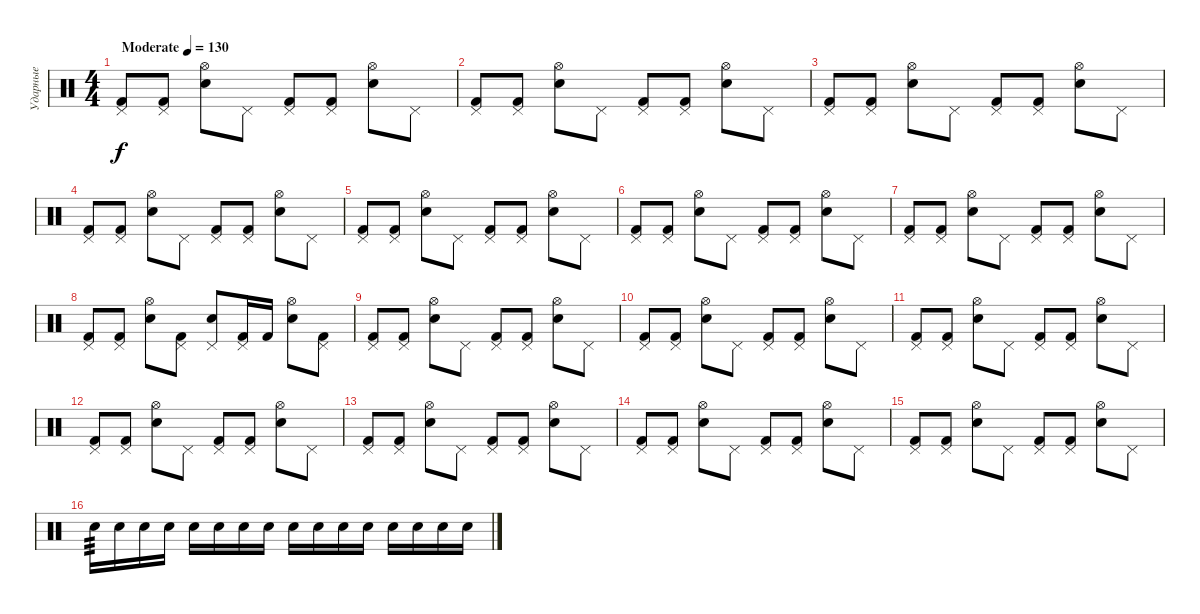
\track ("Ударные" "Ударные") {instrument percussion}
\staff {score}
\articulation defaults
\ts (4 4)
\tempo (130 "Moderate")
\clef neutral
\ks c
("Pedal Hi-Hat (hit)" "Kick (hit) 2").8{dy f} ("Pedal Hi-Hat (hit)" "Kick (hit) 2").8 ("Hi-Hat (open)" "Electric Snare (hit)").8 "Pedal Hi-Hat (hit)".8 ("Pedal Hi-Hat (hit)" "Kick (hit) 2").8 ("Pedal Hi-Hat (hit)" "Kick (hit) 2").8 ("Hi-Hat (open)" "Electric Snare (hit)").8 "Pedal Hi-Hat (hit)".8 |
("Pedal Hi-Hat (hit)" "Kick (hit) 2").8 ("Pedal Hi-Hat (hit)" "Kick (hit) 2").8 ("Hi-Hat (open)" "Electric Snare (hit)").8 "Pedal Hi-Hat (hit)".8 ("Pedal Hi-Hat (hit)" "Kick (hit) 2").8 ("Pedal Hi-Hat (hit)" "Kick (hit) 2").8 ("Hi-Hat (open)" "Electric Snare (hit)").8 "Pedal Hi-Hat (hit)".8 |
("Pedal Hi-Hat (hit)" "Kick (hit) 2").8 ("Pedal Hi-Hat (hit)" "Kick (hit) 2").8 ("Hi-Hat (open)" "Electric Snare (hit)").8 "Pedal Hi-Hat (hit)".8 ("Pedal Hi-Hat (hit)" "Kick (hit) 2").8 ("Pedal Hi-Hat (hit)" "Kick (hit) 2").8 ("Hi-Hat (open)" "Electric Snare (hit)").8 "Pedal Hi-Hat (hit)".8 |
("Pedal Hi-Hat (hit)" "Kick (hit) 2").8 ("Pedal Hi-Hat (hit)" "Kick (hit) 2").8 ("Hi-Hat (open)" "Electric Snare (hit)").8 "Pedal Hi-Hat (hit)".8 ("Pedal Hi-Hat (hit)" "Kick (hit) 2").8 ("Pedal Hi-Hat (hit)" "Kick (hit) 2").8 ("Hi-Hat (open)" "Electric Snare (hit)").8 "Pedal Hi-Hat (hit)".8 |
("Pedal Hi-Hat (hit)" "Kick (hit) 2").8 ("Pedal Hi-Hat (hit)" "Kick (hit) 2").8 ("Hi-Hat (open)" "Electric Snare (hit)").8 "Pedal Hi-Hat (hit)".8 ("Pedal Hi-Hat (hit)" "Kick (hit) 2").8 ("Pedal Hi-Hat (hit)" "Kick (hit) 2").8 ("Hi-Hat (open)" "Electric Snare (hit)").8 "Pedal Hi-Hat (hit)".8 |
("Pedal Hi-Hat (hit)" "Kick (hit) 2").8 ("Pedal Hi-Hat (hit)" "Kick (hit) 2").8 ("Hi-Hat (open)" "Electric Snare (hit)").8 "Pedal Hi-Hat (hit)".8 ("Pedal Hi-Hat (hit)" "Kick (hit) 2").8 ("Pedal Hi-Hat (hit)" "Kick (hit) 2").8 ("Hi-Hat (open)" "Electric Snare (hit)").8 "Pedal Hi-Hat (hit)".8 |
("Pedal Hi-Hat (hit)" "Kick (hit) 2").8 ("Pedal Hi-Hat (hit)" "Kick (hit) 2").8 ("Hi-Hat (open)" "Electric Snare (hit)").8 "Pedal Hi-Hat (hit)".8 ("Pedal Hi-Hat (hit)" "Kick (hit) 2").8 ("Pedal Hi-Hat (hit)" "Kick (hit) 2").8 ("Hi-Hat (open)" "Electric Snare (hit)").8 "Pedal Hi-Hat (hit)".8 |
("Pedal Hi-Hat (hit)" "Kick (hit) 2").8 ("Pedal Hi-Hat (hit)" "Kick (hit) 2").8 ("Hi-Hat (open)" "Electric Snare (hit)").8 ("Pedal Hi-Hat (hit)" "Kick (hit) 2").8 ("Pedal Hi-Hat (hit)" "Electric Snare (hit)").8 ("Pedal Hi-Hat (hit)" "Kick (hit) 2").16 "Kick (hit) 2".16 ("Hi-Hat (open)" "Electric Snare (hit)").8 ("Pedal Hi-Hat (hit)" "Kick (hit) 2").8 |
("Pedal Hi-Hat (hit)" "Kick (hit) 2").8 ("Pedal Hi-Hat (hit)" "Kick (hit) 2").8 ("Hi-Hat (open)" "Electric Snare (hit)").8 "Pedal Hi-Hat (hit)".8 ("Pedal Hi-Hat (hit)" "Kick (hit) 2").8 ("Pedal Hi-Hat (hit)" "Kick (hit) 2").8 ("Hi-Hat (open)" "Electric Snare (hit)").8 "Pedal Hi-Hat (hit)".8 |
("Pedal Hi-Hat (hit)" "Kick (hit) 2").8 ("Pedal Hi-Hat (hit)" "Kick (hit) 2").8 ("Hi-Hat (open)" "Electric Snare (hit)").8 "Pedal Hi-Hat (hit)".8 ("Pedal Hi-Hat (hit)" "Kick (hit) 2").8 ("Pedal Hi-Hat (hit)" "Kick (hit) 2").8 ("Hi-Hat (open)" "Electric Snare (hit)").8 "Pedal Hi-Hat (hit)".8 |
("Pedal Hi-Hat (hit)" "Kick (hit) 2").8 ("Pedal Hi-Hat (hit)" "Kick (hit) 2").8 ("Hi-Hat (open)" "Electric Snare (hit)").8 "Pedal Hi-Hat (hit)".8 ("Pedal Hi-Hat (hit)" "Kick (hit) 2").8 ("Pedal Hi-Hat (hit)" "Kick (hit) 2").8 ("Hi-Hat (open)" "Electric Snare (hit)").8 "Pedal Hi-Hat (hit)".8 |
("Pedal Hi-Hat (hit)" "Kick (hit) 2").8 ("Pedal Hi-Hat (hit)" "Kick (hit) 2").8 ("Hi-Hat (open)" "Electric Snare (hit)").8 "Pedal Hi-Hat (hit)".8 ("Pedal Hi-Hat (hit)" "Kick (hit) 2").8 ("Pedal Hi-Hat (hit)" "Kick (hit) 2").8 ("Hi-Hat (open)" "Electric Snare (hit)").8 "Pedal Hi-Hat (hit)".8 |
("Pedal Hi-Hat (hit)" "Kick (hit) 2").8 ("Pedal Hi-Hat (hit)" "Kick (hit) 2").8 ("Hi-Hat (open)" "Electric Snare (hit)").8 "Pedal Hi-Hat (hit)".8 ("Pedal Hi-Hat (hit)" "Kick (hit) 2").8 ("Pedal Hi-Hat (hit)" "Kick (hit) 2").8 ("Hi-Hat (open)" "Electric Snare (hit)").8 "Pedal Hi-Hat (hit)".8 |
("Pedal Hi-Hat (hit)" "Kick (hit) 2").8 ("Pedal Hi-Hat (hit)" "Kick (hit) 2").8 ("Hi-Hat (open)" "Electric Snare (hit)").8 "Pedal Hi-Hat (hit)".8 ("Pedal Hi-Hat (hit)" "Kick (hit) 2").8 ("Pedal Hi-Hat (hit)" "Kick (hit) 2").8 ("Hi-Hat (open)" "Electric Snare (hit)").8 "Pedal Hi-Hat (hit)".8 |
("Pedal Hi-Hat (hit)" "Kick (hit) 2").8 ("Pedal Hi-Hat (hit)" "Kick (hit) 2").8 ("Hi-Hat (open)" "Electric Snare (hit)").8 "Pedal Hi-Hat (hit)".8 ("Pedal Hi-Hat (hit)" "Kick (hit) 2").8 ("Pedal Hi-Hat (hit)" "Kick (hit) 2").8 ("Hi-Hat (open)" "Electric Snare (hit)").8 "Pedal Hi-Hat (hit)".8 |
"Electric Snare (hit)".16{tp 3} "Electric Snare (hit)".16 "Electric Snare (hit)".16 "Electric Snare (hit)".16 "Electric Snare (hit)".16 "Electric Snare (hit)".16 "Electric Snare (hit)".16 "Electric Snare (hit)".16 "Electric Snare (hit)".16 "Electric Snare (hit)".16 "Electric Snare (hit)".16 "Electric Snare (hit)".16 "Electric Snare (hit)".16 "Electric Snare (hit)".16 "Electric Snare (hit)".16 "Electric Snare (hit)".16
